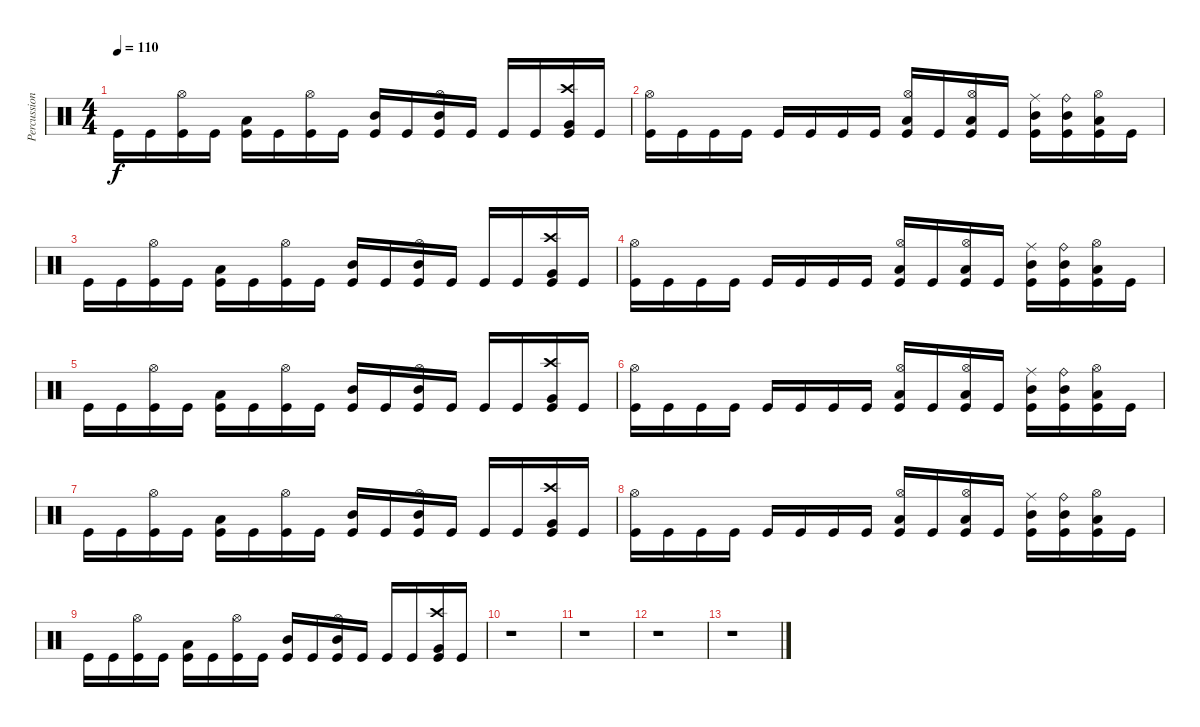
\track ("Percussion" "Percussion") {instrument percussion}
\staff {score}
\articulation defaults
\ts (4 4)
\tempo 110
\clef neutral
\ks c "Kick (hit)".16{dy f} "Kick (hit)".16
("Hi-Hat (open)" "Kick (hit)").16 "Kick (hit)".16 ("Low Tom (hit)" "Kick (hit)").16 "Kick (hit)".16 ("Hi-Hat (open)" "Kick (hit)").16 "Kick (hit)".16 ("Mid Tom (hit)" "Kick (hit)").16 "Kick (hit)".16 ("Hi-Hat (open)" "Mid Tom (hit)" "Kick (hit)").16 "Kick (hit)".16 "Kick (hit)".16 "Kick (hit)".16 ("Crash high (hit)" "Very Low Tom (hit)" "Kick (hit)").16 "Kick (hit)".16 |
("Hi-Hat (open)" "Kick (hit)").16 "Kick (hit)".16 "Kick (hit)".16 "Kick (hit)".16 "Kick (hit)".16 "Kick (hit)".16 "Kick (hit)".16 "Kick (hit)".16 ("Hi-Hat (open)" "Low Tom (hit)" "Kick (hit)").16 "Kick (hit)".16 ("Hi-Hat (open)" "Low Tom (hit)" "Kick (hit)").16 "Kick (hit)".16 ("Ride (middle)" "Mid Tom (hit)" "Kick (hit)").16 ("Ride (bell)" "Mid Tom (hit)" "Kick (hit)").16 ("Hi-Hat (open)" "Low Tom (hit)" "Kick (hit)").16 "Kick (hit)".16 |
"Kick (hit)".16 "Kick (hit)".16 ("Hi-Hat (open)" "Kick (hit)").16 "Kick (hit)".16 ("Low Tom (hit)" "Kick (hit)").16 "Kick (hit)".16 ("Hi-Hat (open)" "Kick (hit)").16 "Kick (hit)".16 ("Mid Tom (hit)" "Kick (hit)").16 "Kick (hit)".16 ("Hi-Hat (open)" "Mid Tom (hit)" "Kick (hit)").16 "Kick (hit)".16 "Kick (hit)".16 "Kick (hit)".16 ("Crash high (hit)" "Very Low Tom (hit)" "Kick (hit)").16 "Kick (hit)".16 |
("Hi-Hat (open)" "Kick (hit)").16 "Kick (hit)".16 "Kick (hit)".16 "Kick (hit)".16 "Kick (hit)".16 "Kick (hit)".16 "Kick (hit)".16 "Kick (hit)".16 ("Hi-Hat (open)" "Low Tom (hit)" "Kick (hit)").16 "Kick (hit)".16 ("Hi-Hat (open)" "Low Tom (hit)" "Kick (hit)").16 "Kick (hit)".16 ("Ride (middle)" "Mid Tom (hit)" "Kick (hit)").16 ("Ride (bell)" "Mid Tom (hit)" "Kick (hit)").16 ("Hi-Hat (open)" "Low Tom (hit)" "Kick (hit)").16 "Kick (hit)".16 |
"Kick (hit)".16 "Kick (hit)".16 ("Hi-Hat (open)" "Kick (hit)").16 "Kick (hit)".16 ("Low Tom (hit)" "Kick (hit)").16 "Kick (hit)".16 ("Hi-Hat (open)" "Kick (hit)").16 "Kick (hit)".16 ("Mid Tom (hit)" "Kick (hit)").16 "Kick (hit)".16 ("Hi-Hat (open)" "Mid Tom (hit)" "Kick (hit)").16 "Kick (hit)".16 "Kick (hit)".16 "Kick (hit)".16 ("Crash high (hit)" "Very Low Tom (hit)" "Kick (hit)").16 "Kick (hit)".16 |
("Hi-Hat (open)" "Kick (hit)").16 "Kick (hit)".16 "Kick (hit)".16 "Kick (hit)".16 "Kick (hit)".16 "Kick (hit)".16 "Kick (hit)".16 "Kick (hit)".16 ("Hi-Hat (open)" "Low Tom (hit)" "Kick (hit)").16 "Kick (hit)".16 ("Hi-Hat (open)" "Low Tom (hit)" "Kick (hit)").16 "Kick (hit)".16 ("Ride (middle)" "Mid Tom (hit)" "Kick (hit)").16 ("Ride (bell)" "Mid Tom (hit)" "Kick (hit)").16 ("Hi-Hat (open)" "Low Tom (hit)" "Kick (hit)").16 "Kick (hit)".16 |
"Kick (hit)".16 "Kick (hit)".16 ("Hi-Hat (open)" "Kick (hit)").16 "Kick (hit)".16 ("Low Tom (hit)" "Kick (hit)").16 "Kick (hit)".16 ("Hi-Hat (open)" "Kick (hit)").16 "Kick (hit)".16 ("Mid Tom (hit)" "Kick (hit)").16 "Kick (hit)".16 ("Hi-Hat (open)" "Mid Tom (hit)" "Kick (hit)").16 "Kick (hit)".16 "Kick (hit)".16 "Kick (hit)".16 ("Crash high (hit)" "Very Low Tom (hit)" "Kick (hit)").16 "Kick (hit)".16 |
("Hi-Hat (open)" "Kick (hit)").16 "Kick (hit)".16 "Kick (hit)".16 "Kick (hit)".16 "Kick (hit)".16 "Kick (hit)".16 "Kick (hit)".16 "Kick (hit)".16 ("Hi-Hat (open)" "Low Tom (hit)" "Kick (hit)").16 "Kick (hit)".16 ("Hi-Hat (open)" "Low Tom (hit)" "Kick (hit)").16 "Kick (hit)".16 ("Ride (middle)" "Mid Tom (hit)" "Kick (hit)").16 ("Ride (bell)" "Mid Tom (hit)" "Kick (hit)").16 ("Hi-Hat (open)" "Low Tom (hit)" "Kick (hit)").16 "Kick (hit)".16 |
"Kick (hit)".16 "Kick (hit)".16 ("Hi-Hat (open)" "Kick (hit)").16 "Kick (hit)".16 ("Low Tom (hit)" "Kick (hit)").16 "Kick (hit)".16 ("Hi-Hat (open)" "Kick (hit)").16 "Kick (hit)".16 ("Mid Tom (hit)" "Kick (hit)").16 "Kick (hit)".16 ("Hi-Hat (open)" "Mid Tom (hit)" "Kick (hit)").16 "Kick (hit)".16 "Kick (hit)".16 "Kick (hit)".16 ("Crash high (hit)" "Very Low Tom (hit)" "Kick (hit)").16 "Kick (hit)".16 |
r.1 |
r.1 |
r.1 |
r.1
